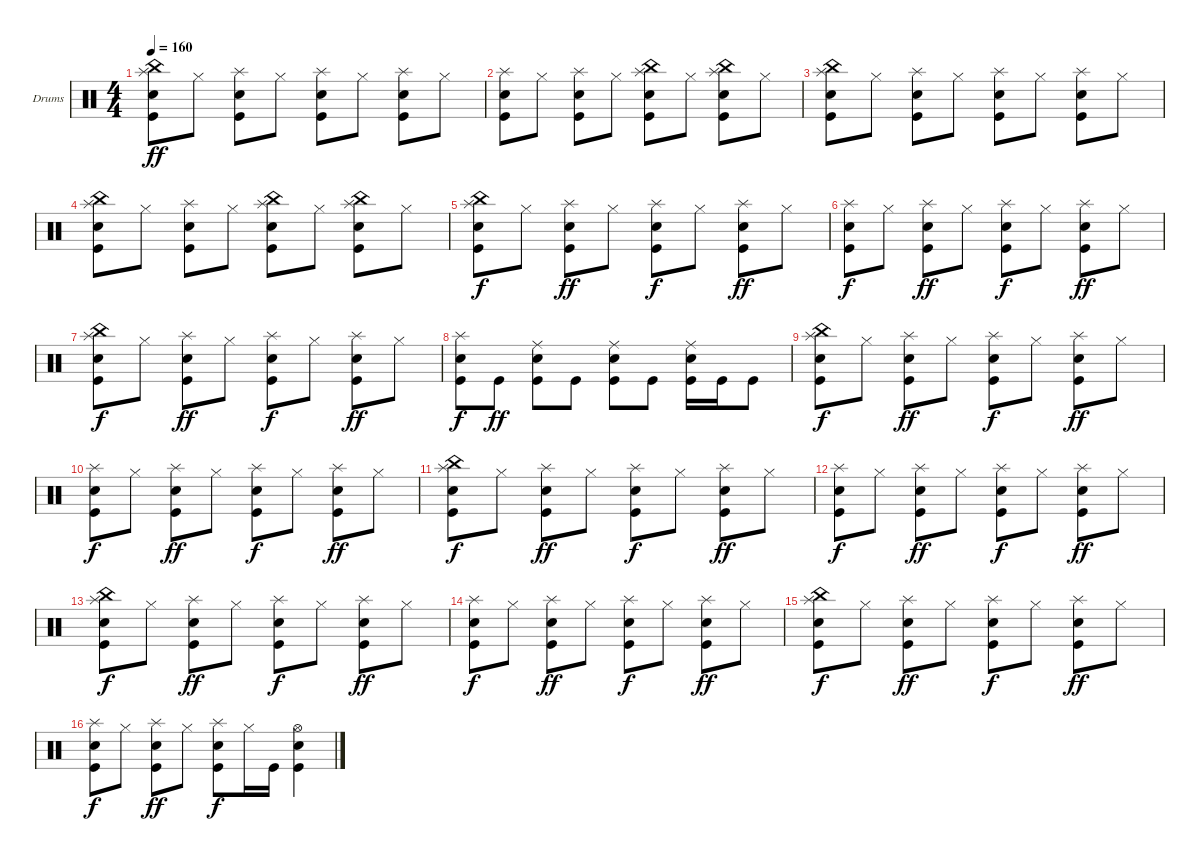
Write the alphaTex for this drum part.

\bracketExtendMode groupsimilarinstruments
\firstSystemTrackNameOrientation horizontal
\otherSystemsTrackNameOrientation horizontal
\track ("Drumkit" "Drums") {instrument percussion}
\staff {score}
\articulation defaults
\ts (4 4)
\tempo 160
\clef neutral
\ks c
("Kick (hit)" "Snare (hit) 2" "China (hit)" "Splash (hit)").8{dy ff} "Hi-Hat (closed)".8 ("Kick (hit)" "Snare (hit) 2" "Splash (hit)").8 "Hi-Hat (closed)".8 ("Kick (hit)" "Snare (hit) 2" "Splash (hit)").8 "Hi-Hat (closed)".8 ("Kick (hit)" "Snare (hit) 2" "Splash (hit)").8 "Hi-Hat (closed)".8 |
("Kick (hit)" "Snare (hit) 2" "Splash (hit)").8 "Hi-Hat (closed)".8 ("Kick (hit)" "Snare (hit) 2" "Splash (hit)").8 "Hi-Hat (closed)".8 ("Kick (hit)" "Snare (hit) 2" "Splash (hit)" "China (hit)").8 "Hi-Hat (closed)".8 ("Kick (hit)" "Snare (hit) 2" "Splash (hit)" "China (hit)").8 "Hi-Hat (closed)".8 |
("Kick (hit)" "Snare (hit) 2" "Splash (hit)" "China (hit)").8 "Hi-Hat (closed)".8 ("Kick (hit)" "Snare (hit) 2" "Splash (hit)").8 "Hi-Hat (closed)".8 ("Kick (hit)" "Snare (hit) 2" "Splash (hit)").8 "Hi-Hat (closed)".8 ("Kick (hit)" "Snare (hit) 2" "Splash (hit)").8 "Hi-Hat (closed)".8 |
("Kick (hit)" "Snare (hit) 2" "Splash (hit)" "China (hit)").8 "Hi-Hat (closed)".8 ("Kick (hit)" "Snare (hit) 2" "Splash (hit)").8 "Hi-Hat (closed)".8 ("Kick (hit)" "Snare (hit) 2" "Splash (hit)" "China (hit)").8 "Hi-Hat (closed)".8 ("Kick (hit)" "Snare (hit) 2" "Splash (hit)" "China (hit)").8 "Hi-Hat (closed)".8 |
("Kick (hit)" "Snare (hit) 2" "Splash (hit)" "China (hit)").8{dy f} "Hi-Hat (closed)".8 ("Kick (hit)" "Snare (hit) 2" "Splash (hit)").8{dy ff} "Hi-Hat (closed)".8 ("Kick (hit)" "Snare (hit) 2" "Splash (hit)").8{dy f} "Hi-Hat (closed)".8 ("Kick (hit)" "Snare (hit) 2" "Splash (hit)").8{dy ff} "Hi-Hat (closed)".8 |
("Kick (hit)" "Snare (hit) 2" "Splash (hit)").8{dy f} "Hi-Hat (closed)".8 ("Kick (hit)" "Snare (hit) 2" "Splash (hit)").8{dy ff} "Hi-Hat (closed)".8 ("Kick (hit)" "Snare (hit) 2" "Splash (hit)").8{dy f} "Hi-Hat (closed)".8 ("Kick (hit)" "Snare (hit) 2" "Splash (hit)").8{dy ff} "Hi-Hat (closed)".8 |
("Kick (hit)" "Snare (hit) 2" "Splash (hit)" "China (hit)").8{dy f} "Hi-Hat (closed)".8 ("Kick (hit)" "Snare (hit) 2" "Splash (hit)").8{dy ff} "Hi-Hat (closed)".8 ("Kick (hit)" "Snare (hit) 2" "Splash (hit)").8{dy f} "Hi-Hat (closed)".8 ("Kick (hit)" "Snare (hit) 2" "Splash (hit)").8{dy ff} "Hi-Hat (closed)".8 |
("Kick (hit)" "Snare (hit) 2" "Splash (hit)").8{dy f} "Kick (hit)".8{dy ff} ("Kick (hit)" "Snare (hit) 2" "Ride (middle)").8 "Kick (hit)".8 ("Kick (hit)" "Snare (hit) 2" "Ride (middle)").8 "Kick (hit)".8 ("Kick (hit)" "Snare (hit) 2" "Ride (middle)").16 "Kick (hit)".16 "Kick (hit)".8 |
("Kick (hit)" "Snare (hit) 2" "Splash (hit)" "China (hit)").8{dy f} "Hi-Hat (closed)".8 ("Kick (hit)" "Snare (hit) 2" "Splash (hit)").8{dy ff} "Hi-Hat (closed)".8 ("Kick (hit)" "Snare (hit) 2" "Splash (hit)").8{dy f} "Hi-Hat (closed)".8 ("Kick (hit)" "Snare (hit) 2" "Splash (hit)").8{dy ff} "Hi-Hat (closed)".8 |
("Kick (hit)" "Snare (hit) 2" "Splash (hit)").8{dy f} "Hi-Hat (closed)".8 ("Kick (hit)" "Snare (hit) 2" "Splash (hit)").8{dy ff} "Hi-Hat (closed)".8 ("Kick (hit)" "Snare (hit) 2" "Splash (hit)").8{dy f} "Hi-Hat (closed)".8 ("Kick (hit)" "Snare (hit) 2" "Splash (hit)").8{dy ff} "Hi-Hat (closed)".8 |
("Kick (hit)" "Snare (hit) 2" "Splash (hit)" "China (hit)").8{dy f} "Hi-Hat (closed)".8 ("Kick (hit)" "Snare (hit) 2" "Splash (hit)").8{dy ff} "Hi-Hat (closed)".8 ("Kick (hit)" "Snare (hit) 2" "Splash (hit)").8{dy f} "Hi-Hat (closed)".8 ("Kick (hit)" "Snare (hit) 2" "Splash (hit)").8{dy ff} "Hi-Hat (closed)".8 |
("Kick (hit)" "Snare (hit) 2" "Splash (hit)").8{dy f} "Hi-Hat (closed)".8 ("Kick (hit)" "Snare (hit) 2" "Splash (hit)").8{dy ff} "Hi-Hat (closed)".8 ("Kick (hit)" "Snare (hit) 2" "Splash (hit)").8{dy f} "Hi-Hat (closed)".8 ("Kick (hit)" "Snare (hit) 2" "Splash (hit)").8{dy ff} "Hi-Hat (closed)".8 |
("Kick (hit)" "Snare (hit) 2" "Splash (hit)" "China (hit)").8{dy f} "Hi-Hat (closed)".8 ("Kick (hit)" "Snare (hit) 2" "Splash (hit)").8{dy ff} "Hi-Hat (closed)".8 ("Kick (hit)" "Snare (hit) 2" "Splash (hit)").8{dy f} "Hi-Hat (closed)".8 ("Kick (hit)" "Snare (hit) 2" "Splash (hit)").8{dy ff} "Hi-Hat (closed)".8 |
("Kick (hit)" "Snare (hit) 2" "Splash (hit)").8{dy f} "Hi-Hat (closed)".8 ("Kick (hit)" "Snare (hit) 2" "Splash (hit)").8{dy ff} "Hi-Hat (closed)".8 ("Kick (hit)" "Snare (hit) 2" "Splash (hit)").8{dy f} "Hi-Hat (closed)".8 ("Kick (hit)" "Snare (hit) 2" "Splash (hit)").8{dy ff} "Hi-Hat (closed)".8 |
("Kick (hit)" "Snare (hit) 2" "Splash (hit)" "China (hit)").8{dy f} "Hi-Hat (closed)".8 ("Kick (hit)" "Snare (hit) 2" "Splash (hit)").8{dy ff} "Hi-Hat (closed)".8 ("Kick (hit)" "Snare (hit) 2" "Splash (hit)").8{dy f} "Hi-Hat (closed)".8 ("Kick (hit)" "Snare (hit) 2" "Splash (hit)").8{dy ff} "Hi-Hat (closed)".8 |
("Kick (hit)" "Snare (hit) 2" "Splash (hit)").8{dy f} "Hi-Hat (closed)".8 ("Kick (hit)" "Snare (hit) 2" "Splash (hit)").8{dy ff} "Hi-Hat (closed)".8 ("Kick (hit)" "Snare (hit) 2" "Splash (hit)").8{dy f} "Hi-Hat (closed)".16 "Kick (hit)".16 ("Kick (hit)" "Snare (hit) 2" "Hi-Hat (open)").4
